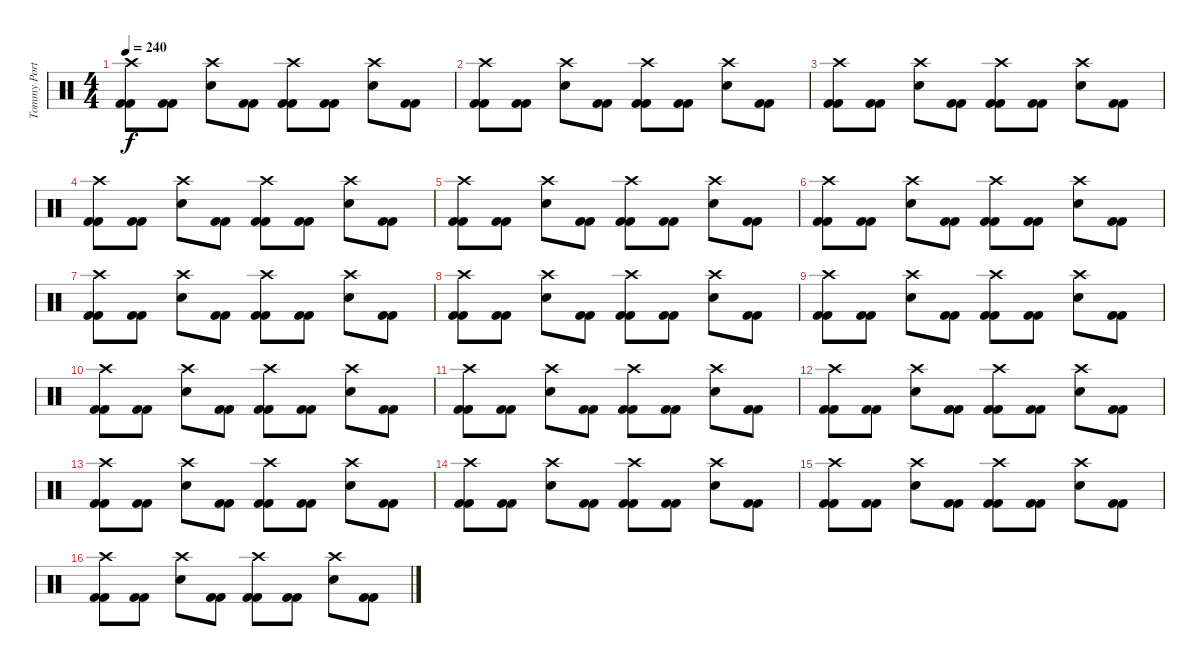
\track ("Tommy Portimo " "Tommy Port") {instrument percussion}
\staff {score}
\articulation defaults
\ts (4 4)
\tempo 240
\clef neutral
\ks c
("Crash high (hit)" "Kick (hit) 2" "Kick (hit) 2").8{dy f} ("Kick (hit) 2" "Kick (hit) 2").8 ("Crash high (hit)" "Electric Snare (hit)").8 ("Kick (hit) 2" "Kick (hit) 2").8 ("Crash high (hit)" "Kick (hit) 2" "Kick (hit) 2").8 ("Kick (hit) 2" "Kick (hit) 2").8 ("Crash high (hit)" "Electric Snare (hit)").8 ("Kick (hit) 2" "Kick (hit) 2").8 |
("Crash high (hit)" "Kick (hit) 2" "Kick (hit) 2").8 ("Kick (hit) 2" "Kick (hit) 2").8 ("Crash high (hit)" "Electric Snare (hit)").8 ("Kick (hit) 2" "Kick (hit) 2").8 ("Crash high (hit)" "Kick (hit) 2" "Kick (hit) 2").8 ("Kick (hit) 2" "Kick (hit) 2").8 ("Crash high (hit)" "Electric Snare (hit)").8 ("Kick (hit) 2" "Kick (hit) 2").8 |
("Crash high (hit)" "Kick (hit) 2" "Kick (hit) 2").8 ("Kick (hit) 2" "Kick (hit) 2").8 ("Crash high (hit)" "Electric Snare (hit)").8 ("Kick (hit) 2" "Kick (hit) 2").8 ("Crash high (hit)" "Kick (hit) 2" "Kick (hit) 2").8 ("Kick (hit) 2" "Kick (hit) 2").8 ("Crash high (hit)" "Electric Snare (hit)").8 ("Kick (hit) 2" "Kick (hit) 2").8 |
("Crash high (hit)" "Kick (hit) 2" "Kick (hit) 2").8 ("Kick (hit) 2" "Kick (hit) 2").8 ("Crash high (hit)" "Electric Snare (hit)").8 ("Kick (hit) 2" "Kick (hit) 2").8 ("Crash high (hit)" "Kick (hit) 2" "Kick (hit) 2").8 ("Kick (hit) 2" "Kick (hit) 2").8 ("Crash high (hit)" "Electric Snare (hit)").8 ("Kick (hit) 2" "Kick (hit) 2").8 |
("Crash high (hit)" "Kick (hit) 2" "Kick (hit) 2").8 ("Kick (hit) 2" "Kick (hit) 2").8 ("Crash high (hit)" "Electric Snare (hit)").8 ("Kick (hit) 2" "Kick (hit) 2").8 ("Crash high (hit)" "Kick (hit) 2" "Kick (hit) 2").8 ("Kick (hit) 2" "Kick (hit) 2").8 ("Crash high (hit)" "Electric Snare (hit)").8 ("Kick (hit) 2" "Kick (hit) 2").8 |
("Crash high (hit)" "Kick (hit) 2" "Kick (hit) 2").8 ("Kick (hit) 2" "Kick (hit) 2").8 ("Crash high (hit)" "Electric Snare (hit)").8 ("Kick (hit) 2" "Kick (hit) 2").8 ("Crash high (hit)" "Kick (hit) 2" "Kick (hit) 2").8 ("Kick (hit) 2" "Kick (hit) 2").8 ("Crash high (hit)" "Electric Snare (hit)").8 ("Kick (hit) 2" "Kick (hit) 2").8 |
("Crash high (hit)" "Kick (hit) 2" "Kick (hit) 2").8 ("Kick (hit) 2" "Kick (hit) 2").8 ("Crash high (hit)" "Electric Snare (hit)").8 ("Kick (hit) 2" "Kick (hit) 2").8 ("Crash high (hit)" "Kick (hit) 2" "Kick (hit) 2").8 ("Kick (hit) 2" "Kick (hit) 2").8 ("Crash high (hit)" "Electric Snare (hit)").8 ("Kick (hit) 2" "Kick (hit) 2").8 |
("Crash high (hit)" "Kick (hit) 2" "Kick (hit) 2").8 ("Kick (hit) 2" "Kick (hit) 2").8 ("Crash high (hit)" "Electric Snare (hit)").8 ("Kick (hit) 2" "Kick (hit) 2").8 ("Crash high (hit)" "Kick (hit) 2" "Kick (hit) 2").8 ("Kick (hit) 2" "Kick (hit) 2").8 ("Crash high (hit)" "Electric Snare (hit)").8 ("Kick (hit) 2" "Kick (hit) 2").8 |
("Crash high (hit)" "Kick (hit) 2" "Kick (hit) 2").8 ("Kick (hit) 2" "Kick (hit) 2").8 ("Crash high (hit)" "Electric Snare (hit)").8 ("Kick (hit) 2" "Kick (hit) 2").8 ("Crash high (hit)" "Kick (hit) 2" "Kick (hit) 2").8 ("Kick (hit) 2" "Kick (hit) 2").8 ("Crash high (hit)" "Electric Snare (hit)").8 ("Kick (hit) 2" "Kick (hit) 2").8 |
("Crash high (hit)" "Kick (hit) 2" "Kick (hit) 2").8 ("Kick (hit) 2" "Kick (hit) 2").8 ("Crash high (hit)" "Electric Snare (hit)").8 ("Kick (hit) 2" "Kick (hit) 2").8 ("Crash high (hit)" "Kick (hit) 2" "Kick (hit) 2").8 ("Kick (hit) 2" "Kick (hit) 2").8 ("Crash high (hit)" "Electric Snare (hit)").8 ("Kick (hit) 2" "Kick (hit) 2").8 |
("Crash high (hit)" "Kick (hit) 2" "Kick (hit) 2").8 ("Kick (hit) 2" "Kick (hit) 2").8 ("Crash high (hit)" "Electric Snare (hit)").8 ("Kick (hit) 2" "Kick (hit) 2").8 ("Crash high (hit)" "Kick (hit) 2" "Kick (hit) 2").8 ("Kick (hit) 2" "Kick (hit) 2").8 ("Crash high (hit)" "Electric Snare (hit)").8 ("Kick (hit) 2" "Kick (hit) 2").8 |
("Crash high (hit)" "Kick (hit) 2" "Kick (hit) 2").8 ("Kick (hit) 2" "Kick (hit) 2").8 ("Crash high (hit)" "Electric Snare (hit)").8 ("Kick (hit) 2" "Kick (hit) 2").8 ("Crash high (hit)" "Kick (hit) 2" "Kick (hit) 2").8 ("Kick (hit) 2" "Kick (hit) 2").8 ("Crash high (hit)" "Electric Snare (hit)").8 ("Kick (hit) 2" "Kick (hit) 2").8 |
("Crash high (hit)" "Kick (hit) 2" "Kick (hit) 2").8 ("Kick (hit) 2" "Kick (hit) 2").8 ("Crash high (hit)" "Electric Snare (hit)").8 ("Kick (hit) 2" "Kick (hit) 2").8 ("Crash high (hit)" "Kick (hit) 2" "Kick (hit) 2").8 ("Kick (hit) 2" "Kick (hit) 2").8 ("Crash high (hit)" "Electric Snare (hit)").8 ("Kick (hit) 2" "Kick (hit) 2").8 |
("Crash high (hit)" "Kick (hit) 2" "Kick (hit) 2").8 ("Kick (hit) 2" "Kick (hit) 2").8 ("Crash high (hit)" "Electric Snare (hit)").8 ("Kick (hit) 2" "Kick (hit) 2").8 ("Crash high (hit)" "Kick (hit) 2" "Kick (hit) 2").8 ("Kick (hit) 2" "Kick (hit) 2").8 ("Crash high (hit)" "Electric Snare (hit)").8 ("Kick (hit) 2" "Kick (hit) 2").8 |
("Crash high (hit)" "Kick (hit) 2" "Kick (hit) 2").8 ("Kick (hit) 2" "Kick (hit) 2").8 ("Crash high (hit)" "Electric Snare (hit)").8 ("Kick (hit) 2" "Kick (hit) 2").8 ("Crash high (hit)" "Kick (hit) 2" "Kick (hit) 2").8 ("Kick (hit) 2" "Kick (hit) 2").8 ("Crash high (hit)" "Electric Snare (hit)").8 ("Kick (hit) 2" "Kick (hit) 2").8 |
("Crash high (hit)" "Kick (hit) 2" "Kick (hit) 2").8 ("Kick (hit) 2" "Kick (hit) 2").8 ("Crash high (hit)" "Electric Snare (hit)").8 ("Kick (hit) 2" "Kick (hit) 2").8 ("Crash high (hit)" "Kick (hit) 2" "Kick (hit) 2").8 ("Kick (hit) 2" "Kick (hit) 2").8 ("Crash high (hit)" "Electric Snare (hit)").8 ("Kick (hit) 2" "Kick (hit) 2").8
